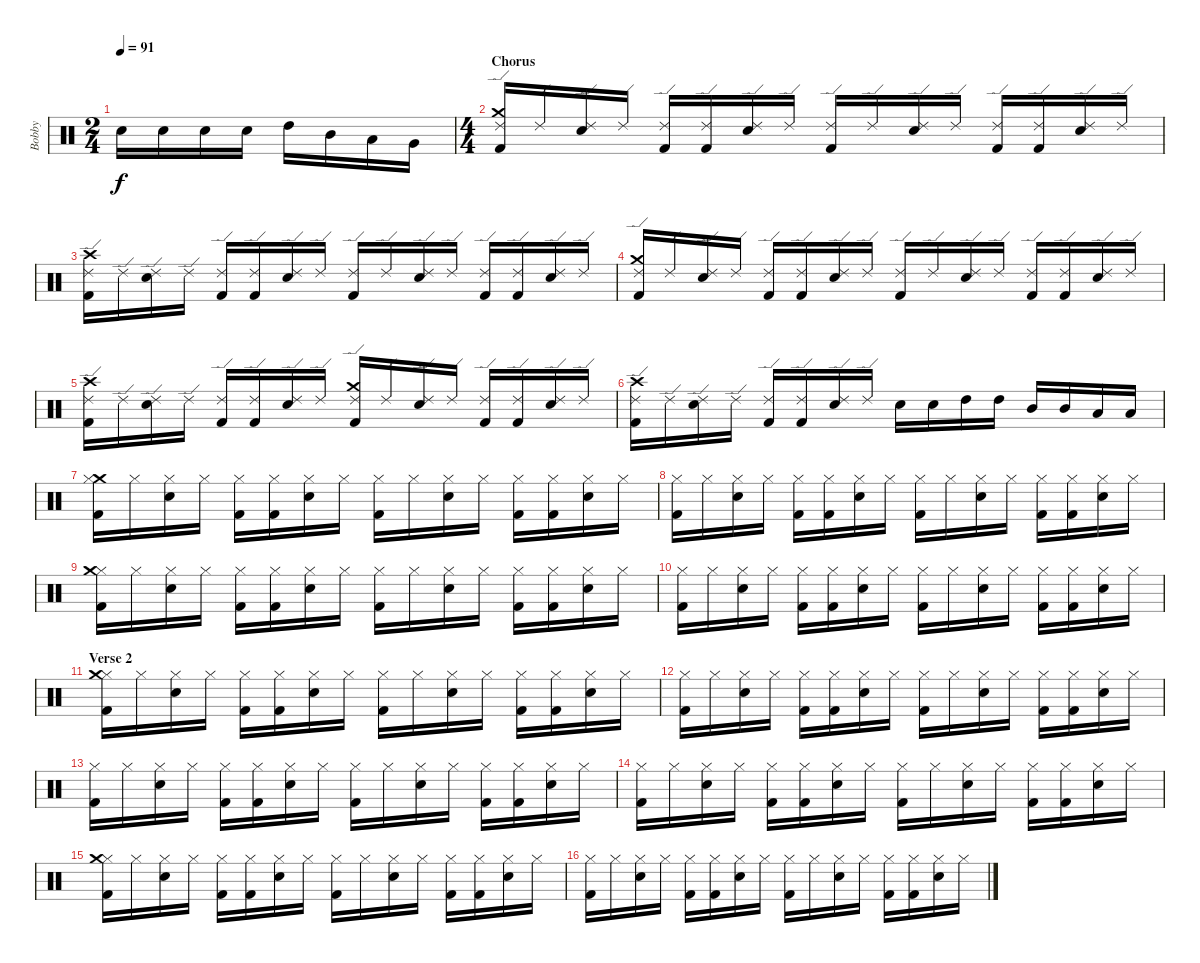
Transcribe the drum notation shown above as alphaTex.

\track ("Bobby" "Bobby") {instrument percussion}
\staff {score}
\articulation defaults
\ts (2 4)
\tempo 91
\clef neutral
\ks c "Snare (hit) 2".16{dy f} "Snare (hit) 2".16 "Snare (hit) 2".16 "Snare (hit) 2".16 "High Tom (hit)".16 "Mid Tom (hit)".16 "Low Tom (hit)".16 "Very Low Tom (hit)".16
|
\ts (4 4)
\section ("" "Chorus")
("Ride (edge) 2" "Crash medium (hit)" "Kick (hit) 2").16 "Ride (edge) 2".16 ("Ride (edge) 2" "Snare (hit) 2").16 "Ride (edge) 2".16 ("Ride (edge) 2" "Kick (hit) 2").16 ("Ride (edge) 2" "Kick (hit) 2").16 ("Ride (edge) 2" "Snare (hit) 2").16 "Ride (edge) 2".16 ("Ride (edge) 2" "Kick (hit) 2").16 "Ride (edge) 2".16 ("Ride (edge) 2" "Snare (hit) 2").16 "Ride (edge) 2".16 ("Ride (edge) 2" "Kick (hit) 2").16 ("Ride (edge) 2" "Kick (hit) 2").16 ("Ride (edge) 2" "Snare (hit) 2").16 "Ride (edge) 2".16 |
("Ride (edge) 2" "Crash high (hit)" "Kick (hit) 2").16 "Ride (edge) 2".16 ("Ride (edge) 2" "Snare (hit) 2").16 "Ride (edge) 2".16 ("Ride (edge) 2" "Kick (hit) 2").16 ("Ride (edge) 2" "Kick (hit) 2").16 ("Ride (edge) 2" "Snare (hit) 2").16 "Ride (edge) 2".16 ("Ride (edge) 2" "Kick (hit) 2").16 "Ride (edge) 2".16 ("Ride (edge) 2" "Snare (hit) 2").16 "Ride (edge) 2".16 ("Ride (edge) 2" "Kick (hit) 2").16 ("Ride (edge) 2" "Kick (hit) 2").16 ("Ride (edge) 2" "Snare (hit) 2").16 "Ride (edge) 2".16 |
("Ride (edge) 2" "Crash medium (hit)" "Kick (hit) 2").16 "Ride (edge) 2".16 ("Ride (edge) 2" "Snare (hit) 2").16 "Ride (edge) 2".16 ("Ride (edge) 2" "Kick (hit) 2").16 ("Ride (edge) 2" "Kick (hit) 2").16 ("Ride (edge) 2" "Snare (hit) 2").16 "Ride (edge) 2".16 ("Ride (edge) 2" "Kick (hit) 2").16 "Ride (edge) 2".16 ("Ride (edge) 2" "Snare (hit) 2").16 "Ride (edge) 2".16 ("Ride (edge) 2" "Kick (hit) 2").16 ("Ride (edge) 2" "Kick (hit) 2").16 ("Ride (edge) 2" "Snare (hit) 2").16 "Ride (edge) 2".16 |
("Ride (edge) 2" "Crash high (hit)" "Kick (hit) 2").16 "Ride (edge) 2".16 ("Ride (edge) 2" "Snare (hit) 2").16 "Ride (edge) 2".16 ("Ride (edge) 2" "Kick (hit) 2").16 ("Ride (edge) 2" "Kick (hit) 2").16 ("Ride (edge) 2" "Snare (hit) 2").16 "Ride (edge) 2".16 ("Ride (edge) 2" "Crash medium (hit)" "Kick (hit) 2").16 "Ride (edge) 2".16 ("Ride (edge) 2" "Snare (hit) 2").16 "Ride (edge) 2".16 ("Ride (edge) 2" "Kick (hit) 2").16 ("Ride (edge) 2" "Kick (hit) 2").16 ("Ride (edge) 2" "Snare (hit) 2").16 "Ride (edge) 2".16 |
("Ride (edge) 2" "Crash high (hit)" "Kick (hit) 2").16 "Ride (edge) 2".16 ("Ride (edge) 2" "Snare (hit) 2").16 "Ride (edge) 2".16 ("Ride (edge) 2" "Kick (hit) 2").16 ("Ride (edge) 2" "Kick (hit) 2").16 ("Ride (edge) 2" "Snare (hit) 2").16 "Ride (edge) 2".16 "Snare (hit) 2".16 "Snare (hit) 2".16 "High Tom (hit)".16 "High Tom (hit)".16 "Mid Tom (hit)".16 "Mid Tom (hit)".16 "Low Tom (hit)".16 "Low Tom (hit)".16 |
("Crash medium (hit)" "Hi-Hat (closed)" "Kick (hit) 2").16 "Hi-Hat (closed)".16 ("Hi-Hat (closed)" "Snare (hit) 2").16 "Hi-Hat (closed)".16 ("Hi-Hat (closed)" "Kick (hit) 2").16 ("Hi-Hat (closed)" "Kick (hit) 2").16 ("Hi-Hat (closed)" "Snare (hit) 2").16 "Hi-Hat (closed)".16 ("Hi-Hat (closed)" "Kick (hit) 2").16 "Hi-Hat (closed)".16 ("Hi-Hat (closed)" "Snare (hit) 2").16 "Hi-Hat (closed)".16 ("Hi-Hat (closed)" "Kick (hit) 2").16 ("Hi-Hat (closed)" "Kick (hit) 2").16 ("Hi-Hat (closed)" "Snare (hit) 2").16 "Hi-Hat (closed)".16 |
("Hi-Hat (closed)" "Kick (hit) 2").16 "Hi-Hat (closed)".16 ("Hi-Hat (closed)" "Snare (hit) 2").16 "Hi-Hat (closed)".16 ("Hi-Hat (closed)" "Kick (hit) 2").16 ("Hi-Hat (closed)" "Kick (hit) 2").16 ("Hi-Hat (closed)" "Snare (hit) 2").16 "Hi-Hat (closed)".16 ("Hi-Hat (closed)" "Kick (hit) 2").16 "Hi-Hat (closed)".16 ("Hi-Hat (closed)" "Snare (hit) 2").16 "Hi-Hat (closed)".16 ("Hi-Hat (closed)" "Kick (hit) 2").16 ("Hi-Hat (closed)" "Kick (hit) 2").16 ("Hi-Hat (closed)" "Snare (hit) 2").16 "Hi-Hat (closed)".16 |
("Hi-Hat (closed)" "Crash medium (hit)" "Kick (hit) 2").16 "Hi-Hat (closed)".16 ("Hi-Hat (closed)" "Snare (hit) 2").16 "Hi-Hat (closed)".16 ("Hi-Hat (closed)" "Kick (hit) 2").16 ("Hi-Hat (closed)" "Kick (hit) 2").16 ("Hi-Hat (closed)" "Snare (hit) 2").16 "Hi-Hat (closed)".16 ("Hi-Hat (closed)" "Kick (hit) 2").16 "Hi-Hat (closed)".16 ("Hi-Hat (closed)" "Snare (hit) 2").16 "Hi-Hat (closed)".16 ("Hi-Hat (closed)" "Kick (hit) 2").16 ("Hi-Hat (closed)" "Kick (hit) 2").16 ("Hi-Hat (closed)" "Snare (hit) 2").16 "Hi-Hat (closed)".16 |
("Hi-Hat (closed)" "Kick (hit) 2").16 "Hi-Hat (closed)".16 ("Hi-Hat (closed)" "Snare (hit) 2").16 "Hi-Hat (closed)".16 ("Hi-Hat (closed)" "Kick (hit) 2").16 ("Hi-Hat (closed)" "Kick (hit) 2").16 ("Hi-Hat (closed)" "Snare (hit) 2").16 "Hi-Hat (closed)".16 ("Hi-Hat (closed)" "Kick (hit) 2").16 "Hi-Hat (closed)".16 ("Hi-Hat (closed)" "Snare (hit) 2").16 "Hi-Hat (closed)".16 ("Hi-Hat (closed)" "Kick (hit) 2").16 ("Hi-Hat (closed)" "Kick (hit) 2").16 ("Hi-Hat (closed)" "Snare (hit) 2").16 "Hi-Hat (closed)".16 |
\section ("" "Verse 2")
("Hi-Hat (closed)" "Crash medium (hit)" "Kick (hit) 2").16 "Hi-Hat (closed)".16 ("Hi-Hat (closed)" "Snare (hit) 2").16 "Hi-Hat (closed)".16 ("Hi-Hat (closed)" "Kick (hit) 2").16 ("Hi-Hat (closed)" "Kick (hit) 2").16 ("Hi-Hat (closed)" "Snare (hit) 2").16 "Hi-Hat (closed)".16 ("Hi-Hat (closed)" "Kick (hit) 2").16 "Hi-Hat (closed)".16 ("Hi-Hat (closed)" "Snare (hit) 2").16 "Hi-Hat (closed)".16 ("Hi-Hat (closed)" "Kick (hit) 2").16 ("Hi-Hat (closed)" "Kick (hit) 2").16 ("Hi-Hat (closed)" "Snare (hit) 2").16 "Hi-Hat (closed)".16 |
("Hi-Hat (closed)" "Kick (hit) 2").16 "Hi-Hat (closed)".16 ("Hi-Hat (closed)" "Snare (hit) 2").16 "Hi-Hat (closed)".16 ("Hi-Hat (closed)" "Kick (hit) 2").16 ("Hi-Hat (closed)" "Kick (hit) 2").16 ("Hi-Hat (closed)" "Snare (hit) 2").16 "Hi-Hat (closed)".16 ("Hi-Hat (closed)" "Kick (hit) 2").16 "Hi-Hat (closed)".16 ("Hi-Hat (closed)" "Snare (hit) 2").16 "Hi-Hat (closed)".16 ("Hi-Hat (closed)" "Kick (hit) 2").16 ("Hi-Hat (closed)" "Kick (hit) 2").16 ("Hi-Hat (closed)" "Snare (hit) 2").16 "Hi-Hat (closed)".16 |
("Hi-Hat (closed)" "Kick (hit) 2").16 "Hi-Hat (closed)".16 ("Hi-Hat (closed)" "Snare (hit) 2").16 "Hi-Hat (closed)".16 ("Hi-Hat (closed)" "Kick (hit) 2").16 ("Hi-Hat (closed)" "Kick (hit) 2").16 ("Hi-Hat (closed)" "Snare (hit) 2").16 "Hi-Hat (closed)".16 ("Hi-Hat (closed)" "Kick (hit) 2").16 "Hi-Hat (closed)".16 ("Hi-Hat (closed)" "Snare (hit) 2").16 "Hi-Hat (closed)".16 ("Hi-Hat (closed)" "Kick (hit) 2").16 ("Hi-Hat (closed)" "Kick (hit) 2").16 ("Hi-Hat (closed)" "Snare (hit) 2").16 "Hi-Hat (closed)".16 |
("Hi-Hat (closed)" "Kick (hit) 2").16 "Hi-Hat (closed)".16 ("Hi-Hat (closed)" "Snare (hit) 2").16 "Hi-Hat (closed)".16 ("Hi-Hat (closed)" "Kick (hit) 2").16 ("Hi-Hat (closed)" "Kick (hit) 2").16 ("Hi-Hat (closed)" "Snare (hit) 2").16 "Hi-Hat (closed)".16 ("Hi-Hat (closed)" "Kick (hit) 2").16 "Hi-Hat (closed)".16 ("Hi-Hat (closed)" "Snare (hit) 2").16 "Hi-Hat (closed)".16 ("Hi-Hat (closed)" "Kick (hit) 2").16 ("Hi-Hat (closed)" "Kick (hit) 2").16 ("Hi-Hat (closed)" "Snare (hit) 2").16 "Hi-Hat (closed)".16 |
("Hi-Hat (closed)" "Crash medium (hit)" "Kick (hit) 2").16 "Hi-Hat (closed)".16 ("Hi-Hat (closed)" "Snare (hit) 2").16 "Hi-Hat (closed)".16 ("Hi-Hat (closed)" "Kick (hit) 2").16 ("Hi-Hat (closed)" "Kick (hit) 2").16 ("Hi-Hat (closed)" "Snare (hit) 2").16 "Hi-Hat (closed)".16 ("Hi-Hat (closed)" "Kick (hit) 2").16 "Hi-Hat (closed)".16 ("Hi-Hat (closed)" "Snare (hit) 2").16 "Hi-Hat (closed)".16 ("Hi-Hat (closed)" "Kick (hit) 2").16 ("Hi-Hat (closed)" "Kick (hit) 2").16 ("Hi-Hat (closed)" "Snare (hit) 2").16 "Hi-Hat (closed)".16 |
("Hi-Hat (closed)" "Kick (hit) 2").16 "Hi-Hat (closed)".16 ("Hi-Hat (closed)" "Snare (hit) 2").16 "Hi-Hat (closed)".16 ("Hi-Hat (closed)" "Kick (hit) 2").16 ("Hi-Hat (closed)" "Kick (hit) 2").16 ("Hi-Hat (closed)" "Snare (hit) 2").16 "Hi-Hat (closed)".16 ("Hi-Hat (closed)" "Kick (hit) 2").16 "Hi-Hat (closed)".16 ("Hi-Hat (closed)" "Snare (hit) 2").16 "Hi-Hat (closed)".16 ("Hi-Hat (closed)" "Kick (hit) 2").16 ("Hi-Hat (closed)" "Kick (hit) 2").16 ("Hi-Hat (closed)" "Snare (hit) 2").16 "Hi-Hat (closed)".16
